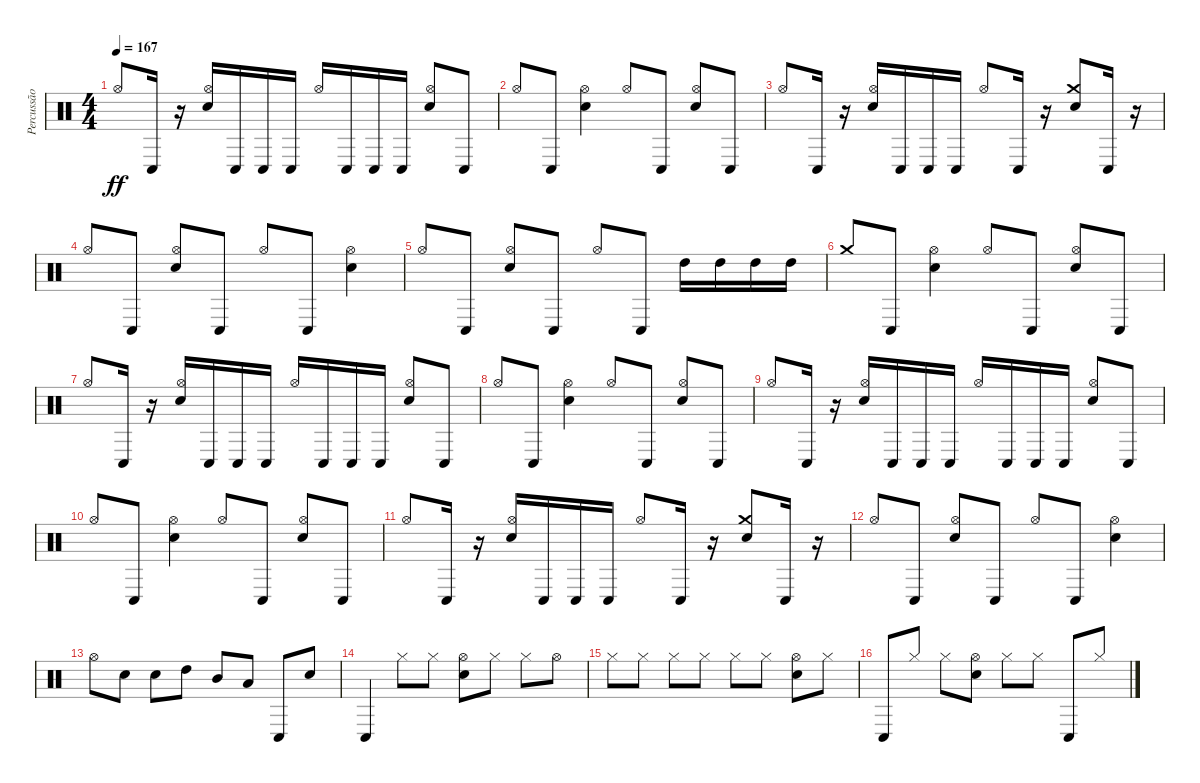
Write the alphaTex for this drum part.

\track ("Percussão" "Percussão") {instrument percussion}
\staff {score}
\articulation defaults
\ts (4 4)
\tempo 167
\clef neutral
\ks c "Hi-Hat (open)".8{dy ff} "Conga low (hit)".16
r.16 ("Electric Snare (hit)" "Hi-Hat (open)").16 "Conga low (hit)".16 "Conga low (hit)".16 "Conga low (hit)".16 "Hi-Hat (open)".16 "Conga low (hit)".16 "Conga low (hit)".16 "Conga low (hit)".16 ("Electric Snare (hit)" "Hi-Hat (open)").8 "Conga low (hit)".8 |
"Hi-Hat (open)".8 "Conga low (hit)".8 ("Electric Snare (hit)" "Hi-Hat (open)").4 "Hi-Hat (open)".8 "Conga low (hit)".8 ("Electric Snare (hit)" "Hi-Hat (open)").8 "Conga low (hit)".8 |
"Hi-Hat (open)".8 "Conga low (hit)".16 r.16 ("Electric Snare (hit)" "Hi-Hat (open)").16 "Conga low (hit)".16 "Conga low (hit)".16 "Conga low (hit)".16 "Hi-Hat (open)".8 "Conga low (hit)".16 r.16 ("Electric Snare (hit)" "Crash medium (hit)").8 "Conga low (hit)".16 r.16 |
"Hi-Hat (open)".8 "Conga low (hit)".8 ("Electric Snare (hit)" "Hi-Hat (open)").8 "Conga low (hit)".8 "Hi-Hat (open)".8 "Conga low (hit)".8 ("Electric Snare (hit)" "Hi-Hat (open)").4 |
"Hi-Hat (open)".8 "Conga low (hit)".8 ("Electric Snare (hit)" "Hi-Hat (open)").8 "Conga low (hit)".8 "Hi-Hat (open)".8 "Conga low (hit)".8 "High Tom (hit)".16 "High Tom (hit)".16 "High Tom (hit)".16 "High Tom (hit)".16 |
"Crash medium (hit)".8 "Conga low (hit)".8 ("Electric Snare (hit)" "Hi-Hat (open)").4 "Hi-Hat (open)".8 "Conga low (hit)".8 ("Electric Snare (hit)" "Hi-Hat (open)").8 "Conga low (hit)".8 |
"Hi-Hat (open)".8 "Conga low (hit)".16 r.16 ("Electric Snare (hit)" "Hi-Hat (open)").16 "Conga low (hit)".16 "Conga low (hit)".16 "Conga low (hit)".16 "Hi-Hat (open)".16 "Conga low (hit)".16 "Conga low (hit)".16 "Conga low (hit)".16 ("Electric Snare (hit)" "Hi-Hat (open)").8 "Conga low (hit)".8 |
"Hi-Hat (open)".8 "Conga low (hit)".8 ("Electric Snare (hit)" "Hi-Hat (open)").4 "Hi-Hat (open)".8 "Conga low (hit)".8 ("Electric Snare (hit)" "Hi-Hat (open)").8 "Conga low (hit)".8 |
"Hi-Hat (open)".8 "Conga low (hit)".16 r.16 ("Electric Snare (hit)" "Hi-Hat (open)").16 "Conga low (hit)".16 "Conga low (hit)".16 "Conga low (hit)".16 "Hi-Hat (open)".16 "Conga low (hit)".16 "Conga low (hit)".16 "Conga low (hit)".16 ("Electric Snare (hit)" "Hi-Hat (open)").8 "Conga low (hit)".8 |
"Hi-Hat (open)".8 "Conga low (hit)".8 ("Electric Snare (hit)" "Hi-Hat (open)").4 "Hi-Hat (open)".8 "Conga low (hit)".8 ("Electric Snare (hit)" "Hi-Hat (open)").8 "Conga low (hit)".8 |
"Hi-Hat (open)".8 "Conga low (hit)".16 r.16 ("Electric Snare (hit)" "Hi-Hat (open)").16 "Conga low (hit)".16 "Conga low (hit)".16 "Conga low (hit)".16 "Hi-Hat (open)".8 "Conga low (hit)".16 r.16 ("Electric Snare (hit)" "Crash medium (hit)").8 "Conga low (hit)".16 r.16 |
"Hi-Hat (open)".8 "Conga low (hit)".8 ("Electric Snare (hit)" "Hi-Hat (open)").8 "Conga low (hit)".8 "Hi-Hat (open)".8 "Conga low (hit)".8 ("Electric Snare (hit)" "Hi-Hat (open)").4 |
"Hi-Hat (open)".8 "Electric Snare (hit)".8 "Electric Snare (hit)".8 "High Tom (hit)".8 "Mid Tom (hit)".8 "Low Tom (hit)".8 "Conga low (hit)".8 "Electric Snare (hit)".8 |
"Conga low (hit)".4 "Hi-Hat (closed)".8 "Hi-Hat (closed)".8 ("Electric Snare (hit)" "Hi-Hat (open)").8 "Hi-Hat (closed)".8 "Hi-Hat (closed)".8 "Hi-Hat (open)".8 |
"Hi-Hat (closed)".8 "Hi-Hat (closed)".8 "Hi-Hat (closed)".8 "Hi-Hat (closed)".8 "Hi-Hat (closed)".8 "Hi-Hat (closed)".8 ("Electric Snare (hit)" "Hi-Hat (open)").8 "Hi-Hat (closed)".8 |
"Conga low (hit)".8 "Hi-Hat (closed)".8 "Hi-Hat (closed)".8 ("Electric Snare (hit)" "Hi-Hat (open)").8 "Hi-Hat (closed)".8 "Hi-Hat (closed)".8 "Conga low (hit)".8 "Hi-Hat (closed)".8
